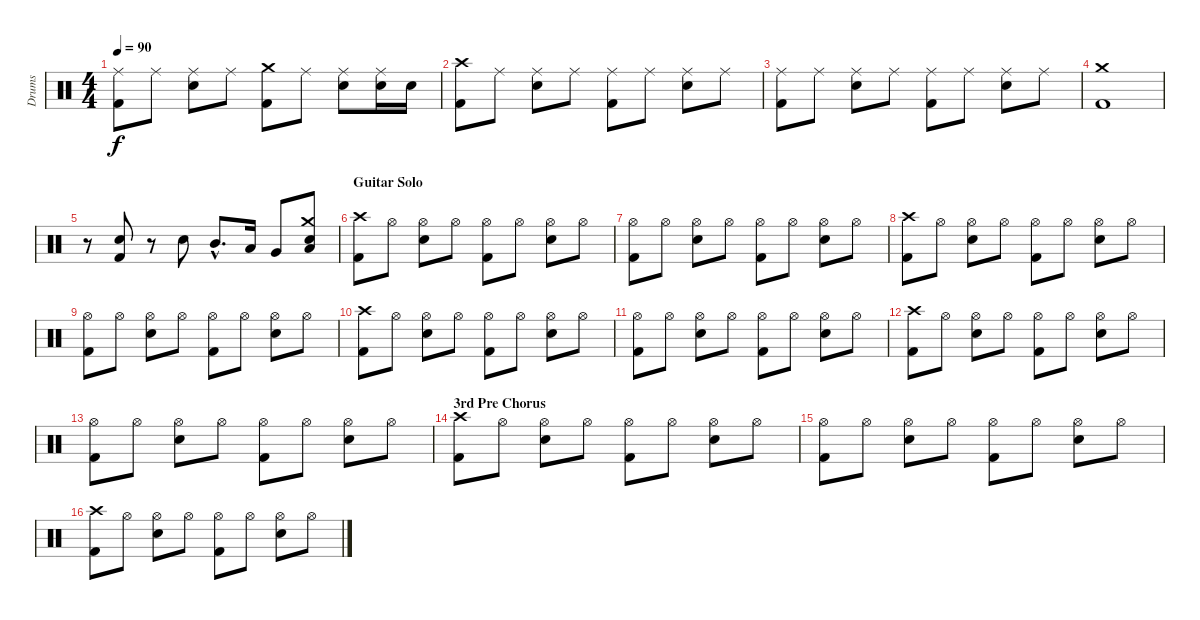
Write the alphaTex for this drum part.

\track ("Drums" "Drums") {instrument percussion}
\staff {score}
\articulation defaults
\ts (4 4)
\tempo 90
\clef neutral
\ks c
("Ride (middle)" "Kick (hit) 2").8{dy f} "Ride (middle)".8 ("Ride (middle)" "Snare (hit) 2").8 "Ride (middle)".8 ("Crash medium (hit)" "Kick (hit) 2").8 "Ride (middle)".8 ("Ride (middle)" "Snare (hit) 2").8 ("Ride (middle)" "Snare (hit) 2").16 "Snare (hit) 2".16 |
("Crash high (hit)" "Kick (hit) 2").8 "Ride (middle)".8 ("Ride (middle)" "Snare (hit) 2").8 "Ride (middle)".8 ("Ride (middle)" "Kick (hit) 2").8 "Ride (middle)".8 ("Ride (middle)" "Snare (hit) 2").8 "Ride (middle)".8 |
("Ride (middle)" "Kick (hit) 2").8 "Ride (middle)".8 ("Ride (middle)" "Snare (hit) 2").8 "Ride (middle)".8 ("Ride (middle)" "Kick (hit) 2").8 "Ride (middle)".8 ("Ride (middle)" "Snare (hit) 2").8 "Ride (middle)".8 |
("Crash medium (hit)" "Kick (hit) 2").1 |
r.8 ("Snare (hit) 2" "Kick (hit) 2").8 r.8 "Snare (hit) 2".8 "Mid Tom (hit)"{hac}.8{d} "Low Tom (hit)".16 "Very Low Tom (hit)".8 ("Crash medium (hit)" "Snare (hit) 2" "Low Floor Tom (hit)").8 |
\section ("" "Guitar Solo")
("Crash high (hit)" "Kick (hit) 2").8 "Hi-Hat (open)".8 ("Hi-Hat (open)" "Snare (hit) 2").8 "Hi-Hat (open)".8 ("Hi-Hat (open)" "Kick (hit) 2").8 "Hi-Hat (open)".8 ("Hi-Hat (open)" "Snare (hit) 2").8 "Hi-Hat (open)".8 |
("Hi-Hat (open)" "Kick (hit) 2").8 "Hi-Hat (open)".8 ("Hi-Hat (open)" "Snare (hit) 2").8 "Hi-Hat (open)".8 ("Hi-Hat (open)" "Kick (hit) 2").8 "Hi-Hat (open)".8 ("Hi-Hat (open)" "Snare (hit) 2").8 "Hi-Hat (open)".8 |
("Crash high (hit)" "Kick (hit) 2").8 "Hi-Hat (open)".8 ("Hi-Hat (open)" "Snare (hit) 2").8 "Hi-Hat (open)".8 ("Hi-Hat (open)" "Kick (hit) 2").8 "Hi-Hat (open)".8 ("Hi-Hat (open)" "Snare (hit) 2").8 "Hi-Hat (open)".8 |
("Hi-Hat (open)" "Kick (hit) 2").8 "Hi-Hat (open)".8 ("Hi-Hat (open)" "Snare (hit) 2").8 "Hi-Hat (open)".8 ("Hi-Hat (open)" "Kick (hit) 2").8 "Hi-Hat (open)".8 ("Hi-Hat (open)" "Snare (hit) 2").8 "Hi-Hat (open)".8 |
("Crash high (hit)" "Kick (hit) 2").8 "Hi-Hat (open)".8 ("Hi-Hat (open)" "Snare (hit) 2").8 "Hi-Hat (open)".8 ("Hi-Hat (open)" "Kick (hit) 2").8 "Hi-Hat (open)".8 ("Hi-Hat (open)" "Snare (hit) 2").8 "Hi-Hat (open)".8 |
("Hi-Hat (open)" "Kick (hit) 2").8 "Hi-Hat (open)".8 ("Hi-Hat (open)" "Snare (hit) 2").8 "Hi-Hat (open)".8 ("Hi-Hat (open)" "Kick (hit) 2").8 "Hi-Hat (open)".8 ("Hi-Hat (open)" "Snare (hit) 2").8 "Hi-Hat (open)".8 |
("Crash high (hit)" "Kick (hit) 2").8 "Hi-Hat (open)".8 ("Hi-Hat (open)" "Snare (hit) 2").8 "Hi-Hat (open)".8 ("Hi-Hat (open)" "Kick (hit) 2").8 "Hi-Hat (open)".8 ("Hi-Hat (open)" "Snare (hit) 2").8 "Hi-Hat (open)".8 |
("Hi-Hat (open)" "Kick (hit) 2").8 "Hi-Hat (open)".8 ("Hi-Hat (open)" "Snare (hit) 2").8 "Hi-Hat (open)".8 ("Hi-Hat (open)" "Kick (hit) 2").8 "Hi-Hat (open)".8 ("Hi-Hat (open)" "Snare (hit) 2").8 "Hi-Hat (open)".8 |
\section ("" "3rd Pre Chorus")
("Crash high (hit)" "Kick (hit) 2").8 "Hi-Hat (open)".8 ("Hi-Hat (open)" "Snare (hit) 2").8 "Hi-Hat (open)".8 ("Hi-Hat (open)" "Kick (hit) 2").8 "Hi-Hat (open)".8 ("Hi-Hat (open)" "Snare (hit) 2").8 "Hi-Hat (open)".8 |
("Hi-Hat (open)" "Kick (hit) 2").8 "Hi-Hat (open)".8 ("Hi-Hat (open)" "Snare (hit) 2").8 "Hi-Hat (open)".8 ("Hi-Hat (open)" "Kick (hit) 2").8 "Hi-Hat (open)".8 ("Hi-Hat (open)" "Snare (hit) 2").8 "Hi-Hat (open)".8 |
("Crash high (hit)" "Kick (hit) 2").8 "Hi-Hat (open)".8 ("Hi-Hat (open)" "Snare (hit) 2").8 "Hi-Hat (open)".8 ("Hi-Hat (open)" "Kick (hit) 2").8 "Hi-Hat (open)".8 ("Hi-Hat (open)" "Snare (hit) 2").8 "Hi-Hat (open)".8
